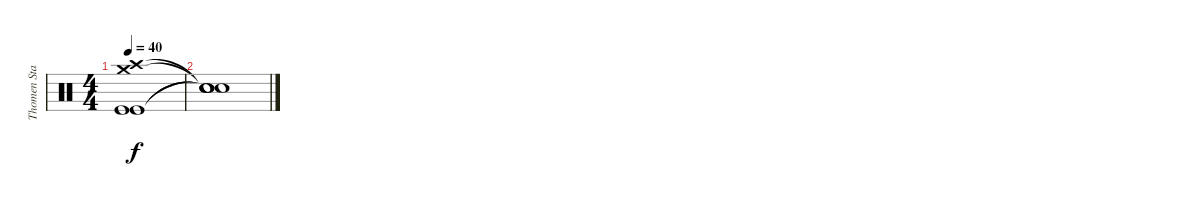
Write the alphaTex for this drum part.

\track ("Thomen Stauch" "Thomen Sta") {instrument percussion}
\staff {score}
\articulation defaults
\ts (4 4)
\tempo 40
\clef neutral
\ks c
("Crash medium (hit)" "Crash high (hit)" "Kick (hit)" "Kick (hit)").1{dy f} |
("Snare (hit)"{t} "Snare (hit)"{t} "Snare (hit)"{t} "Snare (hit)"{t}).1
